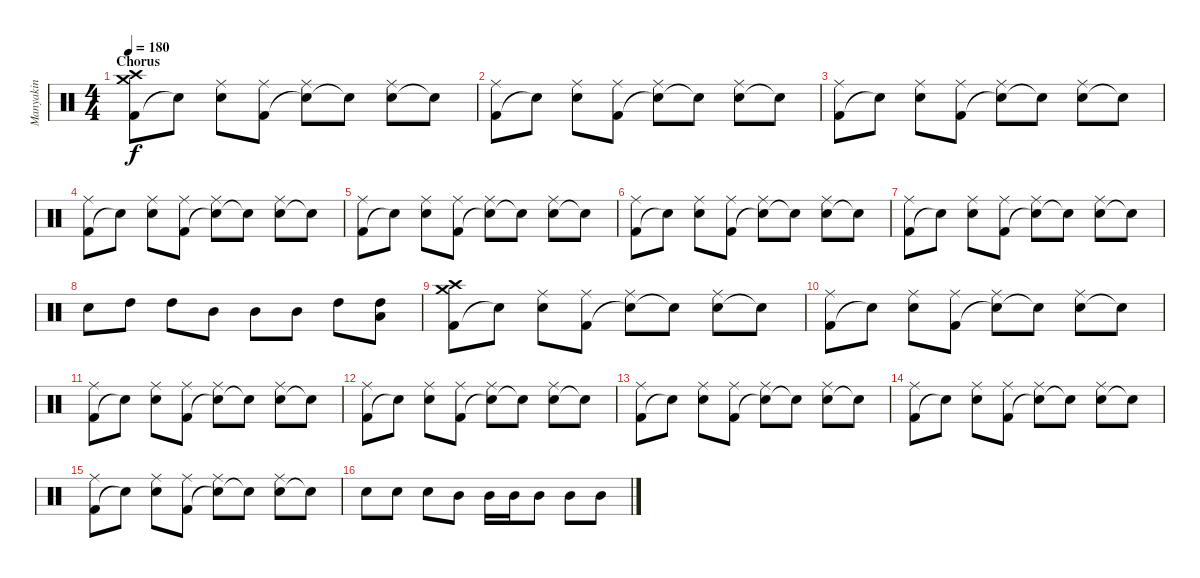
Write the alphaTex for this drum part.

\track ("Manyakin" "Manyakin") {instrument percussion}
\staff {score}
\articulation defaults
\ts (4 4)
\section ("" "Chorus")
\tempo 180
\clef neutral
\ks c
("Kick (hit) 2" "Crash high (hit)" "Crash medium (hit)").8{dy f} "Snare (hit)"{t}.8 ("Snare (hit) 2" "Ride (middle)").8 ("Kick (hit) 2" "Ride (middle)").8 ("Snare (hit)"{t} "Ride (middle)").8 "Snare (hit)"{t}.8 ("Snare (hit) 2" "Ride (middle)").8 "Snare (hit) 2"{t}.8 |
("Kick (hit) 2" "Ride (middle)").8 "Snare (hit)"{t}.8 ("Snare (hit) 2" "Ride (middle)").8 ("Kick (hit) 2" "Ride (middle)").8 ("Snare (hit)"{t} "Ride (middle)").8 "Snare (hit)"{t}.8 ("Snare (hit) 2" "Ride (middle)").8 "Snare (hit) 2"{t}.8 |
("Kick (hit) 2" "Ride (middle)").8 "Snare (hit)"{t}.8 ("Snare (hit) 2" "Ride (middle)").8 ("Kick (hit) 2" "Ride (middle)").8 ("Snare (hit)"{t} "Ride (middle)").8 "Snare (hit)"{t}.8 ("Snare (hit) 2" "Ride (middle)").8 "Snare (hit) 2"{t}.8 |
("Kick (hit) 2" "Ride (middle)").8 "Snare (hit)"{t}.8 ("Snare (hit) 2" "Ride (middle)").8 ("Kick (hit) 2" "Ride (middle)").8 ("Snare (hit)"{t} "Ride (middle)").8 "Snare (hit)"{t}.8 ("Snare (hit) 2" "Ride (middle)").8 "Snare (hit) 2"{t}.8 |
("Kick (hit) 2" "Ride (middle)").8 "Snare (hit)"{t}.8 ("Snare (hit) 2" "Ride (middle)").8 ("Kick (hit) 2" "Ride (middle)").8 ("Snare (hit)"{t} "Ride (middle)").8 "Snare (hit)"{t}.8 ("Snare (hit) 2" "Ride (middle)").8 "Snare (hit) 2"{t}.8 |
("Kick (hit) 2" "Ride (middle)").8 "Snare (hit)"{t}.8 ("Snare (hit) 2" "Ride (middle)").8 ("Kick (hit) 2" "Ride (middle)").8 ("Snare (hit)"{t} "Ride (middle)").8 "Snare (hit)"{t}.8 ("Snare (hit) 2" "Ride (middle)").8 "Snare (hit) 2"{t}.8 |
("Kick (hit) 2" "Ride (middle)").8 "Snare (hit)"{t}.8 ("Snare (hit) 2" "Ride (middle)").8 ("Kick (hit) 2" "Ride (middle)").8 ("Snare (hit)"{t} "Ride (middle)").8 "Snare (hit)"{t}.8 ("Snare (hit) 2" "Ride (middle)").8 "Snare (hit) 2"{t}.8 |
"Electric Snare (hit)".8 "High Tom (hit)".8 "High Tom (hit)".8 "Mid Tom (hit)".8 "Mid Tom (hit)".8 "Mid Tom (hit)".8 "High Tom (hit)".8 ("High Tom (hit)" "Low Tom (hit)").8 |
("Kick (hit) 2" "Crash high (hit)" "Crash medium (hit)").8 "Snare (hit)"{t}.8 ("Snare (hit) 2" "Ride (middle)").8 ("Kick (hit) 2" "Ride (middle)").8 ("Snare (hit)"{t} "Ride (middle)").8 "Snare (hit)"{t}.8 ("Snare (hit) 2" "Ride (middle)").8 "Snare (hit) 2"{t}.8 |
("Kick (hit) 2" "Ride (middle)").8 "Snare (hit)"{t}.8 ("Snare (hit) 2" "Ride (middle)").8 ("Kick (hit) 2" "Ride (middle)").8 ("Snare (hit)"{t} "Ride (middle)").8 "Snare (hit)"{t}.8 ("Snare (hit) 2" "Ride (middle)").8 "Snare (hit) 2"{t}.8 |
("Kick (hit) 2" "Ride (middle)").8 "Snare (hit)"{t}.8 ("Snare (hit) 2" "Ride (middle)").8 ("Kick (hit) 2" "Ride (middle)").8 ("Snare (hit)"{t} "Ride (middle)").8 "Snare (hit)"{t}.8 ("Snare (hit) 2" "Ride (middle)").8 "Snare (hit) 2"{t}.8 |
("Kick (hit) 2" "Ride (middle)").8 "Snare (hit)"{t}.8 ("Snare (hit) 2" "Ride (middle)").8 ("Kick (hit) 2" "Ride (middle)").8 ("Snare (hit)"{t} "Ride (middle)").8 "Snare (hit)"{t}.8 ("Snare (hit) 2" "Ride (middle)").8 "Snare (hit) 2"{t}.8 |
("Kick (hit) 2" "Ride (middle)").8 "Snare (hit)"{t}.8 ("Snare (hit) 2" "Ride (middle)").8 ("Kick (hit) 2" "Ride (middle)").8 ("Snare (hit)"{t} "Ride (middle)").8 "Snare (hit)"{t}.8 ("Snare (hit) 2" "Ride (middle)").8 "Snare (hit) 2"{t}.8 |
("Kick (hit) 2" "Ride (middle)").8 "Snare (hit)"{t}.8 ("Snare (hit) 2" "Ride (middle)").8 ("Kick (hit) 2" "Ride (middle)").8 ("Snare (hit)"{t} "Ride (middle)").8 "Snare (hit)"{t}.8 ("Snare (hit) 2" "Ride (middle)").8 "Snare (hit) 2"{t}.8 |
("Kick (hit) 2" "Ride (middle)").8 "Snare (hit)"{t}.8 ("Snare (hit) 2" "Ride (middle)").8 ("Kick (hit) 2" "Ride (middle)").8 ("Snare (hit)"{t} "Ride (middle)").8 "Snare (hit)"{t}.8 ("Snare (hit) 2" "Ride (middle)").8 "Snare (hit) 2"{t}.8 |
"Snare (hit) 2".8 "Snare (hit) 2".8 "Snare (hit) 2".8 "Mid Tom (hit)".8 "Mid Tom (hit)".16 "Mid Tom (hit)".16 "Mid Tom (hit)".8 "Mid Tom (hit)".8 "Mid Tom (hit)".8
